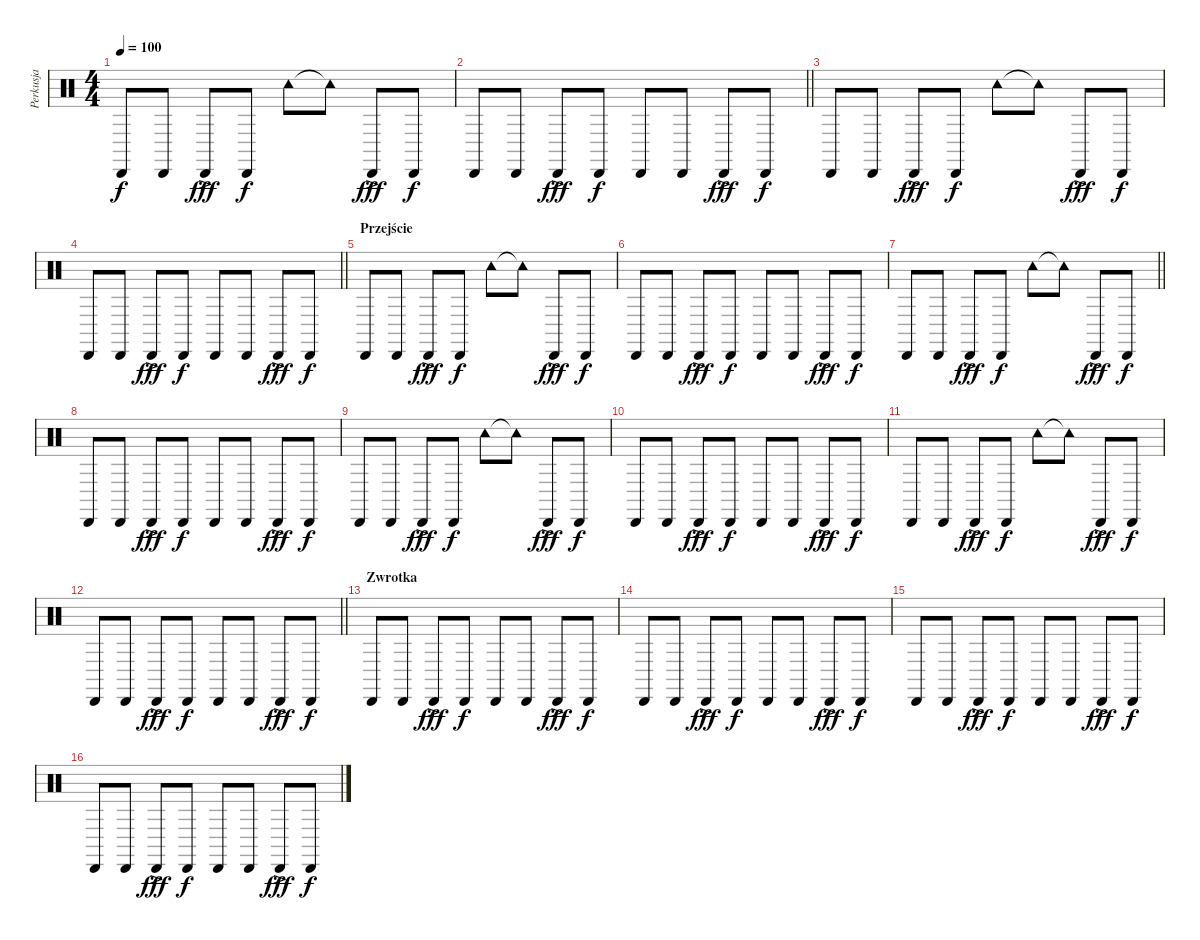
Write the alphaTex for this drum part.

\track ("Perkusja" "Perkusja") {instrument percussion}
\staff {score}
\articulation defaults
\ts (4 4)
\tempo 100
\clef neutral
\ks c "Cabasa (hit)".8{dy f} "Cabasa (hit)".8 "Cabasa (hit)"{ac}.8{dy fff} "Cabasa (hit)".8{dy f} "Tambourine (hit)".8 "Tambourine (hit)"{t}.8 "Cabasa (hit)"{ac}.8{dy fff} "Cabasa (hit)".8{dy f}
|
\barLineRight lightlight "Cabasa (hit)".8 "Cabasa (hit)".8 "Cabasa (hit)"{ac}.8{dy fff} "Cabasa (hit)".8{dy f} "Cabasa (hit)".8 "Cabasa (hit)".8 "Cabasa (hit)"{ac}.8{dy fff} "Cabasa (hit)".8{dy f}
|
"Cabasa (hit)".8 "Cabasa (hit)".8 "Cabasa (hit)"{ac}.8{dy fff} "Cabasa (hit)".8{dy f} "Tambourine (hit)".8 "Tambourine (hit)"{t}.8 "Cabasa (hit)"{ac}.8{dy fff} "Cabasa (hit)".8{dy f} |
\barLineRight lightlight "Cabasa (hit)".8 "Cabasa (hit)".8 "Cabasa (hit)"{ac}.8{dy fff} "Cabasa (hit)".8{dy f} "Cabasa (hit)".8 "Cabasa (hit)".8 "Cabasa (hit)"{ac}.8{dy fff} "Cabasa (hit)".8{dy f}
|
\section ("" "Przejście")
"Cabasa (hit)".8 "Cabasa (hit)".8 "Cabasa (hit)"{ac}.8{dy fff} "Cabasa (hit)".8{dy f} "Tambourine (hit)".8 "Tambourine (hit)"{t}.8 "Cabasa (hit)"{ac}.8{dy fff} "Cabasa (hit)".8{dy f} |
"Cabasa (hit)".8 "Cabasa (hit)".8 "Cabasa (hit)"{ac}.8{dy fff} "Cabasa (hit)".8{dy f} "Cabasa (hit)".8 "Cabasa (hit)".8 "Cabasa (hit)"{ac}.8{dy fff} "Cabasa (hit)".8{dy f} |
\barLineRight lightlight "Cabasa (hit)".8 "Cabasa (hit)".8 "Cabasa (hit)"{ac}.8{dy fff} "Cabasa (hit)".8{dy f} "Tambourine (hit)".8 "Tambourine (hit)"{t}.8 "Cabasa (hit)"{ac}.8{dy fff} "Cabasa (hit)".8{dy f}
|
"Cabasa (hit)".8 "Cabasa (hit)".8 "Cabasa (hit)"{ac}.8{dy fff} "Cabasa (hit)".8{dy f} "Cabasa (hit)".8 "Cabasa (hit)".8 "Cabasa (hit)"{ac}.8{dy fff} "Cabasa (hit)".8{dy f} |
"Cabasa (hit)".8 "Cabasa (hit)".8 "Cabasa (hit)"{ac}.8{dy fff} "Cabasa (hit)".8{dy f} "Tambourine (hit)".8 "Tambourine (hit)"{t}.8 "Cabasa (hit)"{ac}.8{dy fff} "Cabasa (hit)".8{dy f} |
"Cabasa (hit)".8 "Cabasa (hit)".8 "Cabasa (hit)"{ac}.8{dy fff} "Cabasa (hit)".8{dy f} "Cabasa (hit)".8 "Cabasa (hit)".8 "Cabasa (hit)"{ac}.8{dy fff} "Cabasa (hit)".8{dy f} |
"Cabasa (hit)".8 "Cabasa (hit)".8 "Cabasa (hit)"{ac}.8{dy fff} "Cabasa (hit)".8{dy f} "Tambourine (hit)".8 "Tambourine (hit)"{t}.8 "Cabasa (hit)"{ac}.8{dy fff} "Cabasa (hit)".8{dy f} |
\barLineRight lightlight "Cabasa (hit)".8 "Cabasa (hit)".8 "Cabasa (hit)"{ac}.8{dy fff} "Cabasa (hit)".8{dy f} "Cabasa (hit)".8 "Cabasa (hit)".8 "Cabasa (hit)"{ac}.8{dy fff} "Cabasa (hit)".8{dy f}
|
\section ("" "Zwrotka")
"Cabasa (hit)".8 "Cabasa (hit)".8 "Cabasa (hit)"{ac}.8{dy fff} "Cabasa (hit)".8{dy f} "Cabasa (hit)".8 "Cabasa (hit)".8 "Cabasa (hit)"{ac}.8{dy fff} "Cabasa (hit)".8{dy f} |
"Cabasa (hit)".8 "Cabasa (hit)".8 "Cabasa (hit)"{ac}.8{dy fff} "Cabasa (hit)".8{dy f} "Cabasa (hit)".8 "Cabasa (hit)".8 "Cabasa (hit)"{ac}.8{dy fff} "Cabasa (hit)".8{dy f} |
"Cabasa (hit)".8 "Cabasa (hit)".8 "Cabasa (hit)"{ac}.8{dy fff} "Cabasa (hit)".8{dy f} "Cabasa (hit)".8 "Cabasa (hit)".8 "Cabasa (hit)"{ac}.8{dy fff} "Cabasa (hit)".8{dy f} |
"Cabasa (hit)".8 "Cabasa (hit)".8 "Cabasa (hit)"{ac}.8{dy fff} "Cabasa (hit)".8{dy f} "Cabasa (hit)".8 "Cabasa (hit)".8 "Cabasa (hit)"{ac}.8{dy fff} "Cabasa (hit)".8{dy f}
